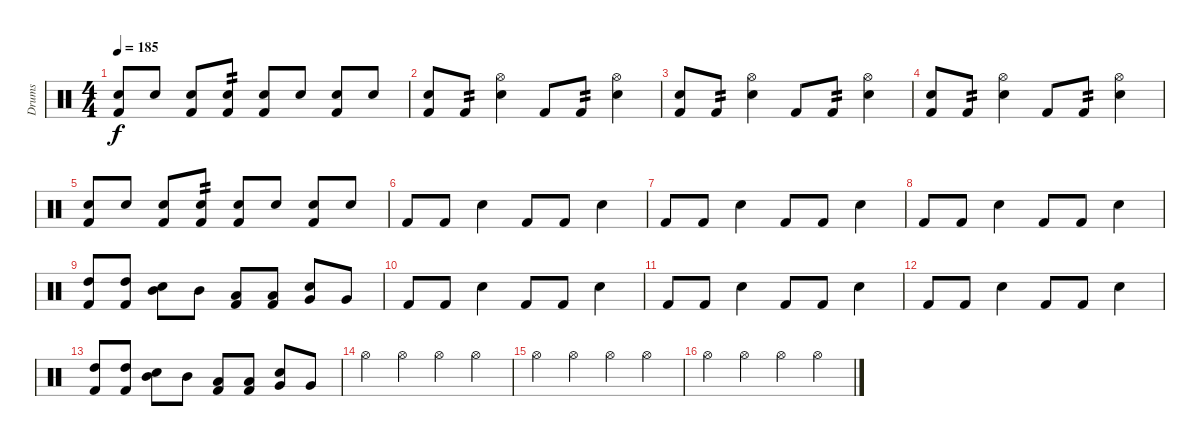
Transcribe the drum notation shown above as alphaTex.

\track ("Drums" "Drums") {instrument percussion}
\staff {score}
\articulation defaults
\ts (4 4)
\tempo 185
\clef neutral
\ks c
("Snare (hit) 2" "Kick (hit) 2").8{dy f} "Snare (hit) 2".8 ("Snare (hit) 2" "Kick (hit) 2").8 ("Snare (hit) 2" "Kick (hit) 2").8{tp 2} ("Snare (hit) 2" "Kick (hit) 2").8 "Snare (hit) 2".8 ("Snare (hit) 2" "Kick (hit) 2").8 "Snare (hit) 2".8 |
("Snare (hit) 2" "Kick (hit) 2").8 "Kick (hit) 2".8{tp 2} ("Hi-Hat (open)" "Snare (hit) 2").4 "Kick (hit) 2".8 "Kick (hit) 2".8{tp 2} ("Hi-Hat (open)" "Snare (hit) 2").4 |
("Snare (hit) 2" "Kick (hit) 2").8 "Kick (hit) 2".8{tp 2} ("Hi-Hat (open)" "Snare (hit) 2").4 "Kick (hit) 2".8 "Kick (hit) 2".8{tp 2} ("Hi-Hat (open)" "Snare (hit) 2").4 |
("Snare (hit) 2" "Kick (hit) 2").8 "Kick (hit) 2".8{tp 2} ("Hi-Hat (open)" "Snare (hit) 2").4 "Kick (hit) 2".8 "Kick (hit) 2".8{tp 2} ("Hi-Hat (open)" "Snare (hit) 2").4 |
("Snare (hit) 2" "Kick (hit) 2").8 "Snare (hit) 2".8 ("Snare (hit) 2" "Kick (hit) 2").8 ("Snare (hit) 2" "Kick (hit) 2").8{tp 2} ("Snare (hit) 2" "Kick (hit) 2").8 "Snare (hit) 2".8 ("Snare (hit) 2" "Kick (hit) 2").8 "Snare (hit) 2".8 |
"Kick (hit) 2".8 "Kick (hit) 2".8 "Snare (hit) 2".4 "Kick (hit) 2".8 "Kick (hit) 2".8 "Snare (hit) 2".4 |
"Kick (hit) 2".8 "Kick (hit) 2".8 "Snare (hit) 2".4 "Kick (hit) 2".8 "Kick (hit) 2".8 "Snare (hit) 2".4 |
"Kick (hit) 2".8 "Kick (hit) 2".8 "Snare (hit) 2".4 "Kick (hit) 2".8 "Kick (hit) 2".8 "Snare (hit) 2".4 |
("High Tom (hit)" "Kick (hit) 2").8 ("High Tom (hit)" "Kick (hit) 2").8 ("Mid Tom (hit)" "Snare (hit) 2").8 "Mid Tom (hit)".8 ("Low Tom (hit)" "Kick (hit) 2").8 ("Low Tom (hit)" "Kick (hit) 2").8 ("Very Low Tom (hit)" "Snare (hit) 2").8 "Very Low Tom (hit)".8 |
"Kick (hit) 2".8 "Kick (hit) 2".8 "Snare (hit) 2".4 "Kick (hit) 2".8 "Kick (hit) 2".8 "Snare (hit) 2".4 |
"Kick (hit) 2".8 "Kick (hit) 2".8 "Snare (hit) 2".4 "Kick (hit) 2".8 "Kick (hit) 2".8 "Snare (hit) 2".4 |
"Kick (hit) 2".8 "Kick (hit) 2".8 "Snare (hit) 2".4 "Kick (hit) 2".8 "Kick (hit) 2".8 "Snare (hit) 2".4 |
("High Tom (hit)" "Kick (hit) 2").8 ("High Tom (hit)" "Kick (hit) 2").8 ("Mid Tom (hit)" "Snare (hit) 2").8 "Mid Tom (hit)".8 ("Low Tom (hit)" "Kick (hit) 2").8 ("Low Tom (hit)" "Kick (hit) 2").8 ("Very Low Tom (hit)" "Snare (hit) 2").8 "Very Low Tom (hit)".8 |
"Hi-Hat (open)".4 "Hi-Hat (open)".4 "Hi-Hat (open)".4 "Hi-Hat (open)".4 |
"Hi-Hat (open)".4 "Hi-Hat (open)".4 "Hi-Hat (open)".4 "Hi-Hat (open)".4 |
"Hi-Hat (open)".4 "Hi-Hat (open)".4 "Hi-Hat (open)".4 "Hi-Hat (open)".4
